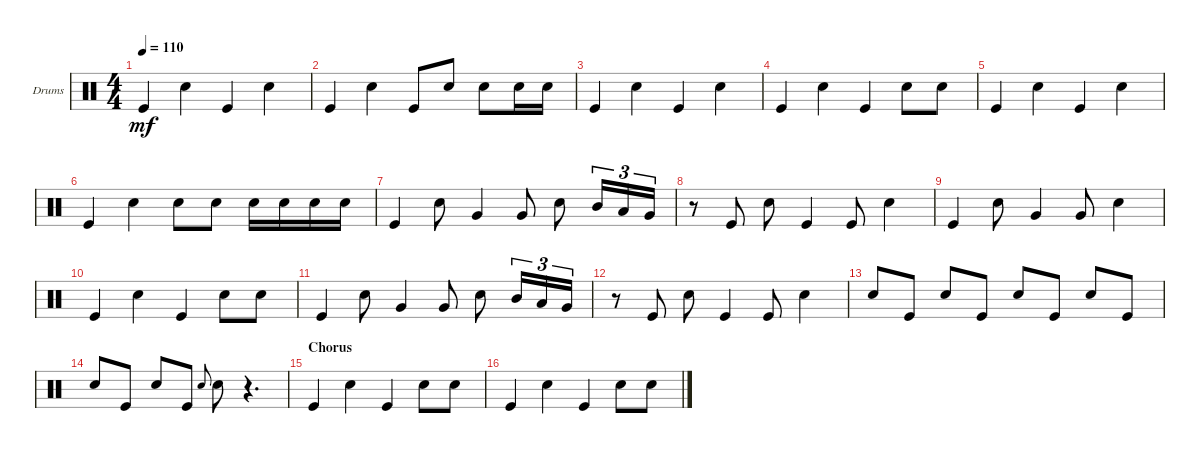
\defaultSystemsLayout 4
\bracketExtendMode groupsimilarinstruments
\firstSystemTrackNameOrientation horizontal
\otherSystemsTrackNameOrientation horizontal
\track ("Drumkit" "Drums") {instrument percussion}
\staff {score}
\articulation defaults
\ts (4 4)
\tempo 110
\clef neutral
\scale
0.333333
\ks c "Kick (hit)".4{dy mf} "Snare (hit) 2".4 "Kick (hit)".4 "Snare (hit) 2".4
|
\scale
0.333333 "Kick (hit)".4 "Snare (hit) 2".4 "Kick (hit)".8 "Snare (hit) 2".8 "Snare (hit) 2".8 "Snare (hit) 2".16 "Snare (hit) 2".16 |
\scale
0.333333 "Kick (hit)".4 "Snare (hit) 2".4 "Kick (hit)".4 "Snare (hit) 2".4 |
\scale
0.333333 "Kick (hit)".4 "Snare (hit) 2".4 "Kick (hit)".4 "Snare (hit) 2".8 "Snare (hit) 2".8 |
\scale
0.333333 "Kick (hit)".4 "Snare (hit) 2".4 "Kick (hit)".4 "Snare (hit) 2".4 |
"Kick (hit)".4 "Snare (hit) 2".4 "Snare (hit) 2".8 "Snare (hit) 2".8 "Snare (hit) 2".16 "Snare (hit) 2".16 "Snare (hit) 2".16 "Snare (hit) 2".16 |
"Kick (hit)".4 "Snare (hit) 2".8 "Very Low Tom (hit)".4 "Very Low Tom (hit)".8 "Snare (hit) 2".8 "Mid Tom (hit)".16{tu (3 2)} "Low Tom (hit)".16{tu (3 2)} "Very Low Tom (hit)".16{tu (3 2)} |
r.8 "Kick (hit)".8 "Snare (hit) 2".8 "Kick (hit)".4 "Kick (hit)".8 "Snare (hit) 2".4 |
"Kick (hit)".4 "Snare (hit) 2".8 "Very Low Tom (hit)".4 "Very Low Tom (hit)".8 "Snare (hit) 2".4 |
"Kick (hit)".4 "Snare (hit) 2".4 "Kick (hit)".4 "Snare (hit) 2".8 "Snare (hit) 2".8 |
"Kick (hit)".4 "Snare (hit) 2".8 "Very Low Tom (hit)".4 "Very Low Tom (hit)".8 "Snare (hit) 2".8 "Mid Tom (hit)".16{tu (3 2)} "Low Tom (hit)".16{tu (3 2)} "Very Low Tom (hit)".16{tu (3 2)} |
r.8 "Kick (hit)".8 "Snare (hit) 2".8 "Kick (hit)".4 "Kick (hit)".8 "Snare (hit) 2".4 |
"Snare (hit) 2".8 "Kick (hit)".8 "Snare (hit) 2".8 "Kick (hit)".8 "Snare (hit) 2".8 "Kick (hit)".8 "Snare (hit) 2".8 "Kick (hit)".8 |
"Snare (hit) 2".8 "Kick (hit)".8 "Snare (hit) 2".8 "Kick (hit)".8 "Snare (hit) 2".8{gr onbeat} "Snare (hit) 2".8 r.4{d} |
\section ("" "Chorus")
"Kick (hit)".4 "Snare (hit) 2".4 "Kick (hit)".4 "Snare (hit) 2".8 "Snare (hit) 2".8 |
"Kick (hit)".4 "Snare (hit) 2".4 "Kick (hit)".4 "Snare (hit) 2".8 "Snare (hit) 2".8
